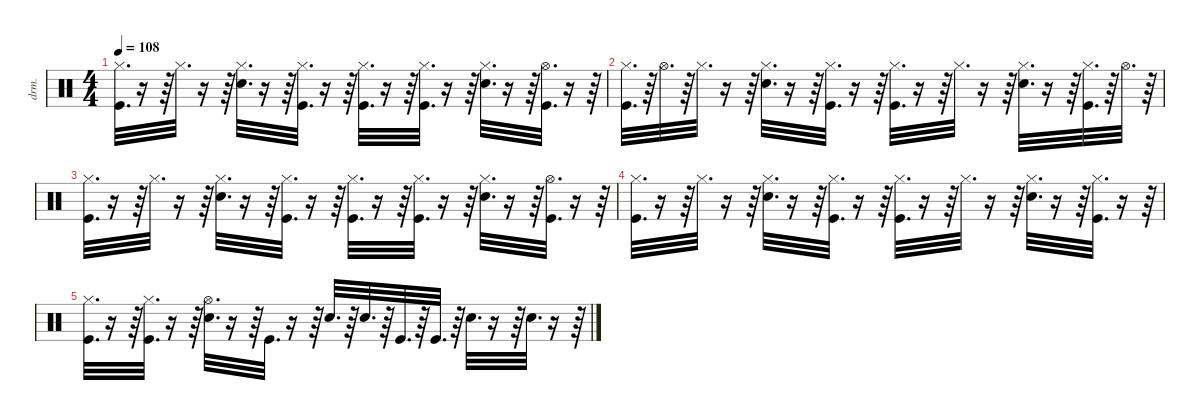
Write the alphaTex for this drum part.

\defaultSystemsLayout 4
\hideDynamics
\bracketExtendMode nobrackets
\otherSystemsTrackNameOrientation horizontal
\track ("Percussions" "drm.") {instrument percussion}
\staff {score}
\articulation defaults
\ts (4 4)
\tempo 108
\clef neutral
\ks c
("Hi-Hat (closed)" "Kick (hit)").32{d dy f} r.16 r.64 "Hi-Hat (closed)".32{d} r.16 r.64 ("Hi-Hat (closed)" "Snare (hit) 2").32{d} r.16 r.64 ("Hi-Hat (closed)" "Kick (hit)").32{d} r.16 r.64 ("Hi-Hat (closed)" "Kick (hit)").32{d} r.16 r.64 ("Hi-Hat (closed)" "Kick (hit)").32{d} r.16 r.64 ("Hi-Hat (closed)" "Snare (hit) 2").32{d} r.16 r.64 ("Hi-Hat (open)" "Kick (hit)").32{d} r.16 r.64 |
("Hi-Hat (closed)" "Kick (hit)").32{d} r.64 "Hi-Hat (open)".32{d} r.64 "Hi-Hat (closed)".32{d} r.16 r.64 ("Hi-Hat (closed)" "Snare (hit) 2").32{d} r.16 r.64 ("Hi-Hat (closed)" "Kick (hit)").32{d} r.16 r.64 ("Hi-Hat (closed)" "Kick (hit)").32{d} r.16 r.64 "Hi-Hat (closed)".32{d} r.16 r.64 ("Hi-Hat (closed)" "Snare (hit) 2").32{d} r.16 r.64 ("Hi-Hat (closed)" "Kick (hit)").32{d} r.64 "Hi-Hat (open)".32{d} r.64 |
("Hi-Hat (closed)" "Kick (hit)").32{d} r.16 r.64 "Hi-Hat (closed)".32{d} r.16 r.64 ("Hi-Hat (closed)" "Snare (hit) 2").32{d} r.16 r.64 ("Hi-Hat (closed)" "Kick (hit)").32{d} r.16 r.64 ("Hi-Hat (closed)" "Kick (hit)").32{d} r.16 r.64 ("Hi-Hat (closed)" "Kick (hit)").32{d} r.16 r.64 ("Hi-Hat (closed)" "Snare (hit) 2").32{d} r.16 r.64 ("Hi-Hat (open)" "Kick (hit)").32{d} r.16 r.64 |
("Hi-Hat (closed)" "Kick (hit)").32{d} r.16 r.64 "Hi-Hat (closed)".32{d} r.16 r.64 ("Hi-Hat (closed)" "Snare (hit) 2").32{d} r.16 r.64 ("Hi-Hat (closed)" "Kick (hit)").32{d} r.16 r.64 ("Hi-Hat (closed)" "Kick (hit)").32{d} r.16 r.64 "Hi-Hat (closed)".32{d} r.16 r.64 ("Hi-Hat (closed)" "Snare (hit) 2").32{d} r.16 r.64 ("Hi-Hat (closed)" "Kick (hit)").32{d} r.16 r.64 |
("Hi-Hat (closed)" "Kick (hit)").32{d} r.16 r.64 ("Hi-Hat (closed)" "Kick (hit)").32{d} r.16 r.64 ("Hi-Hat (open)" "Snare (hit) 2").32{d} r.16 r.64 "Kick (hit)".32{d} r.16 r.64 "Snare (hit) 2".32{d} r.64 "Snare (hit) 2".32{d} r.64 "Kick (hit)".32{d} r.64 "Kick (hit)".32{d} r.64 "Snare (hit) 2".32{d} r.16 r.64 "Snare (hit) 2".32{d} r.16 r.64
